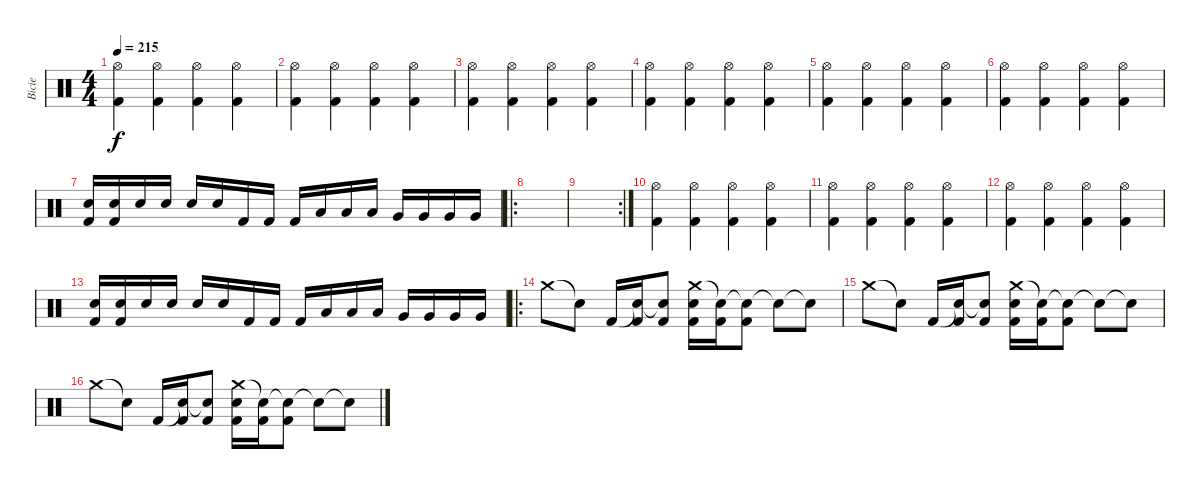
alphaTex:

\track ("Bicie" "Bicie") {instrument percussion}
\staff {score}
\articulation defaults
\ts (4 4)
\tempo 215
\clef neutral
\ks c
("Hi-Hat (open)" "Kick (hit) 2").4{dy f} ("Hi-Hat (open)" "Kick (hit) 2").4 ("Hi-Hat (open)" "Kick (hit) 2").4 ("Hi-Hat (open)" "Kick (hit) 2").4 |
("Hi-Hat (open)" "Kick (hit) 2").4 ("Hi-Hat (open)" "Kick (hit) 2").4 ("Hi-Hat (open)" "Kick (hit) 2").4 ("Hi-Hat (open)" "Kick (hit) 2").4 |
("Hi-Hat (open)" "Kick (hit) 2").4 ("Hi-Hat (open)" "Kick (hit) 2").4 ("Hi-Hat (open)" "Kick (hit) 2").4 ("Hi-Hat (open)" "Kick (hit) 2").4 |
("Hi-Hat (open)" "Kick (hit) 2").4 ("Hi-Hat (open)" "Kick (hit) 2").4 ("Hi-Hat (open)" "Kick (hit) 2").4 ("Hi-Hat (open)" "Kick (hit) 2").4 |
("Hi-Hat (open)" "Kick (hit) 2").4 ("Hi-Hat (open)" "Kick (hit) 2").4 ("Hi-Hat (open)" "Kick (hit) 2").4 ("Hi-Hat (open)" "Kick (hit) 2").4 |
("Hi-Hat (open)" "Kick (hit) 2").4 ("Hi-Hat (open)" "Kick (hit) 2").4 ("Hi-Hat (open)" "Kick (hit) 2").4 ("Hi-Hat (open)" "Kick (hit) 2").4 |
("Electric Snare (hit)" "Kick (hit) 2").16 ("Electric Snare (hit)" "Kick (hit) 2").16 "Electric Snare (hit)".16 "Electric Snare (hit)".16 "Electric Snare (hit)".16 "Electric Snare (hit)".16 "Kick (hit) 2".16 "Kick (hit) 2".16 "Kick (hit) 2".16 "Low Tom (hit)".16 "Low Tom (hit)".16 "Low Tom (hit)".16 "Very Low Tom (hit)".16 "Very Low Tom (hit)".16 "Very Low Tom (hit)".16 "Very Low Tom (hit)".16 |
\ro
|
\rc 2
|
("Hi-Hat (open)" "Kick (hit) 2").4 ("Hi-Hat (open)" "Kick (hit) 2").4 ("Hi-Hat (open)" "Kick (hit) 2").4 ("Hi-Hat (open)" "Kick (hit) 2").4 |
("Hi-Hat (open)" "Kick (hit) 2").4 ("Hi-Hat (open)" "Kick (hit) 2").4 ("Hi-Hat (open)" "Kick (hit) 2").4 ("Hi-Hat (open)" "Kick (hit) 2").4 |
("Hi-Hat (open)" "Kick (hit) 2").4 ("Hi-Hat (open)" "Kick (hit) 2").4 ("Hi-Hat (open)" "Kick (hit) 2").4 ("Hi-Hat (open)" "Kick (hit) 2").4 |
("Electric Snare (hit)" "Kick (hit) 2").16 ("Electric Snare (hit)" "Kick (hit) 2").16 "Electric Snare (hit)".16 "Electric Snare (hit)".16 "Electric Snare (hit)".16 "Electric Snare (hit)".16 "Kick (hit) 2".16 "Kick (hit) 2".16 "Kick (hit) 2".16 "Low Tom (hit)".16 "Low Tom (hit)".16 "Low Tom (hit)".16 "Very Low Tom (hit)".16 "Very Low Tom (hit)".16 "Very Low Tom (hit)".16 "Very Low Tom (hit)".16 |
\ro "Crash medium (hit)".8 "Snare (hit)"{t}.8 "Kick (hit) 2".16
("Snare (hit)"{t} "Kick (hit) 2").16 ("Snare (hit)"{t} "Kick (hit) 2").8 ("Crash medium (hit)" "Electric Snare (hit)" "Kick (hit) 2").16 ("Snare (hit)"{t} "Kick (hit) 2").16 ("Snare (hit)"{t} "Kick (hit) 2").8 "Snare (hit)"{t}.8 "Snare (hit)"{t}.8 |
"Crash medium (hit)".8 "Snare (hit)"{t}.8 "Kick (hit) 2".16 ("Snare (hit)"{t} "Kick (hit) 2").16 ("Snare (hit)"{t} "Kick (hit) 2").8 ("Crash medium (hit)" "Electric Snare (hit)" "Kick (hit) 2").16 ("Snare (hit)"{t} "Kick (hit) 2").16 ("Snare (hit)"{t} "Kick (hit) 2").8 "Snare (hit)"{t}.8 "Snare (hit)"{t}.8 |
"Crash medium (hit)".8 "Snare (hit)"{t}.8 "Kick (hit) 2".16 ("Snare (hit)"{t} "Kick (hit) 2").16 ("Snare (hit)"{t} "Kick (hit) 2").8 ("Crash medium (hit)" "Electric Snare (hit)" "Kick (hit) 2").16 ("Snare (hit)"{t} "Kick (hit) 2").16 ("Snare (hit)"{t} "Kick (hit) 2").8 "Snare (hit)"{t}.8 "Snare (hit)"{t}.8
